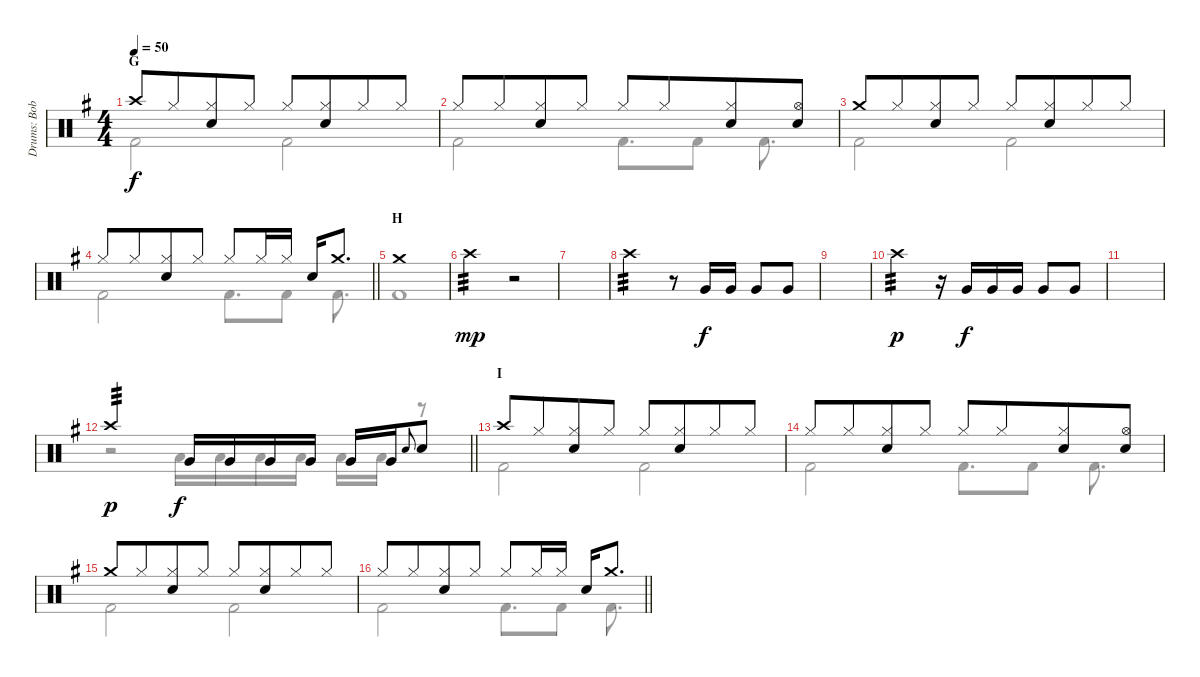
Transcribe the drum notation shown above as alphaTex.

\track ("Drums: Bobby" "Drums: Bob") {instrument percussion}
\staff {score}
\articulation defaults
\voice
\ts (4 4)
\section ("" "G")
\tempo 50
\clef neutral
\ks g "Crash high (hit)".8{dy f} "Hi-Hat (closed)".8{beam merge}
("Hi-Hat (closed)" "Snare (hit) 2").8 "Hi-Hat (closed)".8 "Hi-Hat (closed)".8 ("Hi-Hat (closed)" "Snare (hit) 2").8{beam merge} "Hi-Hat (closed)".8 "Hi-Hat (closed)".8 |
"Hi-Hat (closed)".8 "Hi-Hat (closed)".8{beam merge} ("Hi-Hat (closed)" "Snare (hit) 2").8 "Hi-Hat (closed)".8 "Hi-Hat (closed)".8 "Hi-Hat (closed)".8{beam merge} ("Hi-Hat (closed)" "Snare (hit) 2").8 ("Hi-Hat (open)" "Snare (hit) 2").8 |
"Crash medium (hit)".8 "Hi-Hat (closed)".8{beam merge} ("Hi-Hat (closed)" "Snare (hit) 2").8 "Hi-Hat (closed)".8 "Hi-Hat (closed)".8 ("Hi-Hat (closed)" "Snare (hit) 2").8{beam merge} "Hi-Hat (closed)".8 "Hi-Hat (closed)".8 |
\barLineRight lightlight "Hi-Hat (closed)".8 "Hi-Hat (closed)".8{beam merge}
("Hi-Hat (closed)" "Snare (hit) 2").8 "Hi-Hat (closed)".8 "Hi-Hat (closed)".8 "Hi-Hat (closed)".16{beam merge} "Hi-Hat (closed)".16 "Snare (hit) 2".16 "Crash medium (hit)".8{d} |
\section ("" "H")
"Crash medium (hit)".1 |
"Crash high (hit)".2{tp 3 dy mp} r.2 |
|
"Crash high (hit)".2{tp 3} r.8 "Very Low Tom (hit)".16{dy f} "Very Low Tom (hit)".16 "Very Low Tom (hit)".8 "Very Low Tom (hit)".8 |
|
"Crash high (hit)".2{tp 3 dy p} r.16 "Very Low Tom (hit)".16{dy f} "Very Low Tom (hit)".16 "Very Low Tom (hit)".16 "Very Low Tom (hit)".8 "Very Low Tom (hit)".8 |
|
\barLineRight lightlight "Crash high (hit)".2{tp 3 dy p} "Very Low Tom (hit)".16{dy f} "Very Low Tom (hit)".16 "Very Low Tom (hit)".16 "Very Low Tom (hit)".16 "Very Low Tom (hit)".16 "Very Low Tom (hit)".16 "Electric Snare (hit)".8{gr onbeat} "Snare (hit) 2".8
|
\section ("" "I")
"Crash high (hit)".8 "Hi-Hat (closed)".8{beam merge} ("Hi-Hat (closed)" "Snare (hit) 2").8 "Hi-Hat (closed)".8 "Hi-Hat (closed)".8 ("Hi-Hat (closed)" "Snare (hit) 2").8{beam merge} "Hi-Hat (closed)".8 "Hi-Hat (closed)".8 |
"Hi-Hat (closed)".8 "Hi-Hat (closed)".8{beam merge} ("Hi-Hat (closed)" "Snare (hit) 2").8 "Hi-Hat (closed)".8 "Hi-Hat (closed)".8 "Hi-Hat (closed)".8{beam merge} ("Hi-Hat (closed)" "Snare (hit) 2").8 ("Hi-Hat (open)" "Snare (hit) 2").8 |
"Crash medium (hit)".8 "Hi-Hat (closed)".8{beam merge} ("Hi-Hat (closed)" "Snare (hit) 2").8 "Hi-Hat (closed)".8 "Hi-Hat (closed)".8 ("Hi-Hat (closed)" "Snare (hit) 2").8{beam merge} "Hi-Hat (closed)".8 "Hi-Hat (closed)".8 |
\barLineRight lightlight "Hi-Hat (closed)".8 "Hi-Hat (closed)".8{beam merge}
("Hi-Hat (closed)" "Snare (hit) 2").8 "Hi-Hat (closed)".8 "Hi-Hat (closed)".8 "Hi-Hat (closed)".16{beam merge} "Hi-Hat (closed)".16 "Snare (hit) 2".16 "Crash medium (hit)".8{d}
\voice
\clef neutral
\ottava regular
\simile none
\ks g "Kick (hit) 2".2{dy f} "Kick (hit) 2".2
|
"Kick (hit) 2".2 "Kick (hit) 2".8{d} "Kick (hit) 2".8 "Kick (hit) 2".8{d} |
"Kick (hit) 2".2 "Kick (hit) 2".2 |
\barLineRight lightlight "Kick (hit) 2".2 "Kick (hit) 2".8{d} "Kick (hit) 2".8 "Kick (hit) 2".8{d}
|
"Kick (hit) 2".1 |
|
|
|
|
|
|
\barLineRight lightlight
r.2 "Low Tom (hit)".16 "Low Tom (hit)".16 "Low Tom (hit)".16 "Low Tom (hit)".16 "Low Tom (hit)".16 "Low Tom (hit)".16 r.8 |
"Kick (hit) 2".2 "Kick (hit) 2".2 |
"Kick (hit) 2".2 "Kick (hit) 2".8{d} "Kick (hit) 2".8 "Kick (hit) 2".8{d} |
"Kick (hit) 2".2 "Kick (hit) 2".2 |
\barLineRight lightlight "Kick (hit) 2".2 "Kick (hit) 2".8{d} "Kick (hit) 2".8 "Kick (hit) 2".8{d}
